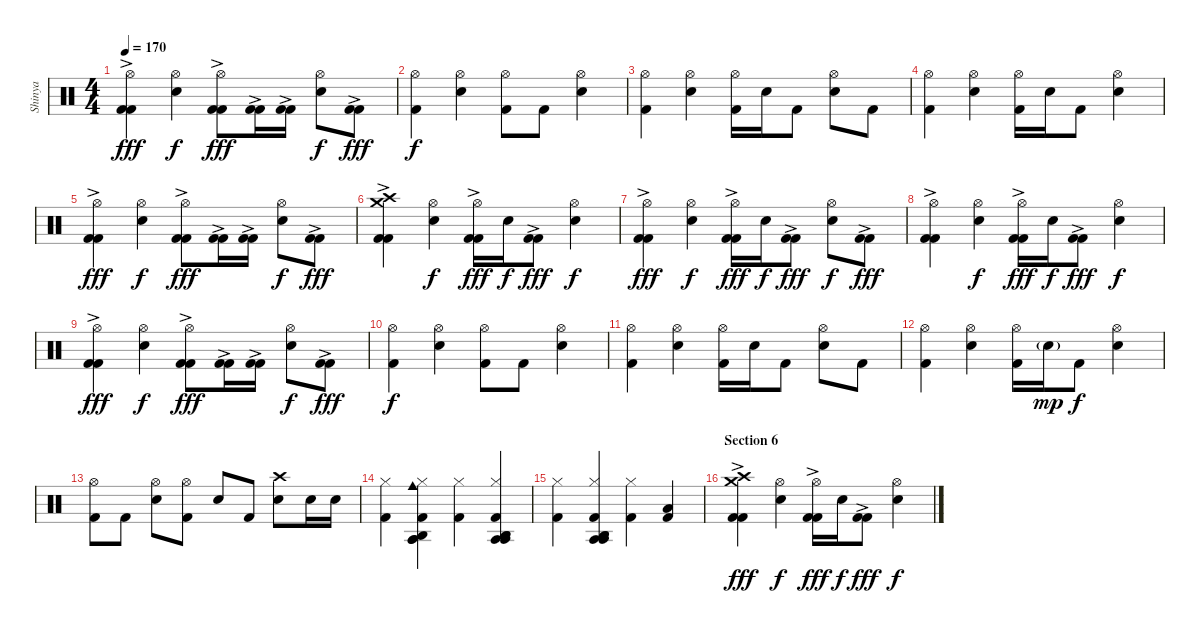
\track ("Shinya" "Shinya") {instrument percussion}
\staff {score}
\articulation defaults
\ts (4 4)
\tempo 170
\clef neutral
\ks c
("Hi-Hat (open)" "Kick (hit) 2"{ac} "Kick (hit) 2").4{dy fff} ("Hi-Hat (open)" "Snare (hit) 2").4{dy f} ("Hi-Hat (open)" "Kick (hit) 2"{ac} "Kick (hit) 2").8{dy fff} ("Kick (hit) 2"{ac} "Kick (hit) 2").16 ("Kick (hit) 2"{ac} "Kick (hit) 2").16 ("Hi-Hat (open)" "Snare (hit) 2").8{dy f} ("Kick (hit) 2"{ac} "Kick (hit) 2").8{dy fff} |
("Hi-Hat (open)" "Kick (hit) 2").4{dy f} ("Hi-Hat (open)" "Snare (hit) 2").4 ("Hi-Hat (open)" "Kick (hit) 2").8 "Kick (hit) 2".8 ("Hi-Hat (open)" "Snare (hit) 2").4 |
("Hi-Hat (open)" "Kick (hit) 2").4 ("Hi-Hat (open)" "Snare (hit) 2").4 ("Hi-Hat (open)" "Kick (hit) 2").16 "Snare (hit) 2".16 "Kick (hit) 2".8 ("Hi-Hat (open)" "Snare (hit) 2").8 "Kick (hit) 2".8 |
("Hi-Hat (open)" "Kick (hit) 2").4 ("Hi-Hat (open)" "Snare (hit) 2").4 ("Hi-Hat (open)" "Kick (hit) 2").16 "Snare (hit) 2".16 "Kick (hit) 2".8 ("Hi-Hat (open)" "Snare (hit) 2").4 |
("Hi-Hat (open)" "Kick (hit) 2"{ac} "Kick (hit) 2").4{dy fff} ("Hi-Hat (open)" "Snare (hit) 2").4{dy f} ("Hi-Hat (open)" "Kick (hit) 2"{ac} "Kick (hit) 2").8{dy fff} ("Kick (hit) 2"{ac} "Kick (hit) 2").16 ("Kick (hit) 2"{ac} "Kick (hit) 2").16 ("Hi-Hat (open)" "Snare (hit) 2").8{dy f} ("Kick (hit) 2"{ac} "Kick (hit) 2").8{dy fff} |
("Crash medium (hit)" "Crash high (hit)" "Kick (hit) 2"{ac} "Kick (hit) 2").4 ("Hi-Hat (open)" "Snare (hit) 2").4{dy f} ("Hi-Hat (open)" "Kick (hit) 2"{ac} "Kick (hit) 2").16{dy fff} "Snare (hit) 2".16{dy f} ("Kick (hit) 2"{ac} "Kick (hit) 2").8{dy fff} ("Hi-Hat (open)" "Snare (hit) 2").4{dy f} |
("Hi-Hat (open)" "Kick (hit) 2"{ac} "Kick (hit) 2").4{dy fff} ("Hi-Hat (open)" "Snare (hit) 2").4{dy f} ("Hi-Hat (open)" "Kick (hit) 2"{ac} "Kick (hit) 2").16{dy fff} "Snare (hit) 2".16{dy f} ("Kick (hit) 2"{ac} "Kick (hit) 2").8{dy fff} ("Hi-Hat (open)" "Snare (hit) 2").8{dy f} ("Kick (hit) 2"{ac} "Kick (hit) 2").8{dy fff} |
("Hi-Hat (open)" "Kick (hit) 2"{ac} "Kick (hit) 2").4 ("Hi-Hat (open)" "Snare (hit) 2").4{dy f} ("Hi-Hat (open)" "Kick (hit) 2"{ac} "Kick (hit) 2").16{dy fff} "Snare (hit) 2".16{dy f} ("Kick (hit) 2"{ac} "Kick (hit) 2").8{dy fff} ("Hi-Hat (open)" "Snare (hit) 2").4{dy f} |
("Hi-Hat (open)" "Kick (hit) 2"{ac} "Kick (hit) 2").4{dy fff} ("Hi-Hat (open)" "Snare (hit) 2").4{dy f} ("Hi-Hat (open)" "Kick (hit) 2"{ac} "Kick (hit) 2").8{dy fff} ("Kick (hit) 2"{ac} "Kick (hit) 2").16 ("Kick (hit) 2"{ac} "Kick (hit) 2").16 ("Hi-Hat (open)" "Snare (hit) 2").8{dy f} ("Kick (hit) 2"{ac} "Kick (hit) 2").8{dy fff} |
("Hi-Hat (open)" "Kick (hit) 2").4{dy f} ("Hi-Hat (open)" "Snare (hit) 2").4 ("Hi-Hat (open)" "Kick (hit) 2").8 "Kick (hit) 2".8 ("Hi-Hat (open)" "Snare (hit) 2").4 |
("Hi-Hat (open)" "Kick (hit) 2").4 ("Hi-Hat (open)" "Snare (hit) 2").4 ("Hi-Hat (open)" "Kick (hit) 2").16 "Snare (hit) 2".16 "Kick (hit) 2".8 ("Hi-Hat (open)" "Snare (hit) 2").8 "Kick (hit) 2".8 |
("Hi-Hat (open)" "Kick (hit) 2").4 ("Hi-Hat (open)" "Snare (hit) 2").4 ("Hi-Hat (open)" "Kick (hit) 2").16 "Snare (hit) 2"{g}.16{dy mp} "Kick (hit) 2".8{dy f} ("Hi-Hat (open)" "Snare (hit) 2").4 |
("Hi-Hat (open)" "Kick (hit) 2").8 "Kick (hit) 2".8 ("Hi-Hat (open)" "Snare (hit) 2").8 ("Hi-Hat (open)" "Kick (hit) 2").8 "Snare (hit) 2".8 "Kick (hit) 2".8 ("Crash high (hit)" "Snare (hit) 2").8 "Snare (hit) 2".16 "Snare (hit) 2".16 |
("Hi-Hat (closed)" "Kick (hit) 2").4 ("Agogo tow (hit)" "Agogo high (hit)" "Hi-Hat (closed)" "Cowbell medium (hit)" "Agogo tow (hit)" "Kick (hit) 2").4 ("Hi-Hat (closed)" "Kick (hit) 2").4 ("Agogo tow (hit)" "Agogo high (hit)" "Hi-Hat (closed)" "Agogo high (hit)" "Agogo tow (hit)" "Kick (hit) 2").4 |
("Hi-Hat (closed)" "Kick (hit) 2").4 ("Agogo tow (hit)" "Agogo high (hit)" "Hi-Hat (closed)" "Agogo tow (hit)" "Agogo high (hit)" "Kick (hit) 2").4 ("Hi-Hat (closed)" "Kick (hit) 2").4 ("Low Floor Tom (hit)" "Kick (hit) 2").4 |
\section ("" "Section 6")
("Crash medium (hit)" "Crash high (hit)" "Kick (hit) 2"{ac} "Kick (hit) 2").4{dy fff} ("Hi-Hat (open)" "Snare (hit) 2").4{dy f} ("Hi-Hat (open)" "Kick (hit) 2"{ac} "Kick (hit) 2").16{dy fff} "Snare (hit) 2".16{dy f} ("Kick (hit) 2"{ac} "Kick (hit) 2").8{dy fff} ("Hi-Hat (open)" "Snare (hit) 2").4{dy f}
